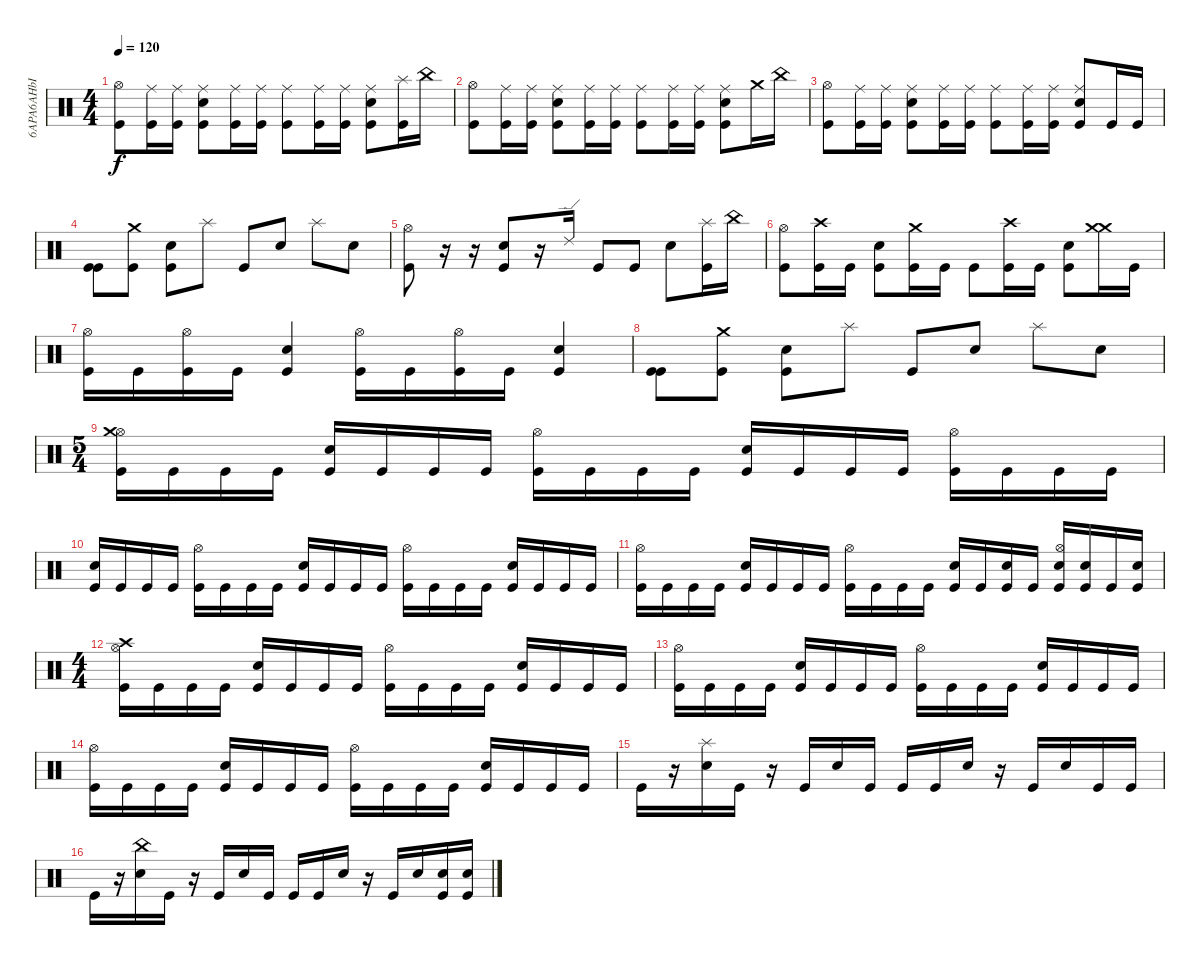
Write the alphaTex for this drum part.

\track ("6APA6AHbI" "6APA6AHbI") {instrument percussion}
\staff {score}
\articulation defaults
\ts (4 4)
\tempo 120
\clef neutral
\ks c
("Kick (hit)" "Hi-Hat (open)").8{dy f} ("Kick (hit)" "Ride (middle)").16 ("Kick (hit)" "Ride (middle)").16 ("Kick (hit)" "Ride (middle)" "Electric Snare (hit)").8 ("Kick (hit)" "Ride (middle)").16 ("Kick (hit)" "Ride (middle)").16 ("Kick (hit)" "Ride (middle)").8 ("Kick (hit)" "Ride (middle)").16 ("Kick (hit)" "Ride (middle)").16 ("Kick (hit)" "Ride (middle)" "Electric Snare (hit)").8 ("Splash (hit)" "Kick (hit)").16 "China (hit)".16 |
("Kick (hit)" "Hi-Hat (open)").8 ("Kick (hit)" "Ride (middle)").16 ("Kick (hit)" "Ride (middle)").16 ("Kick (hit)" "Ride (middle)" "Electric Snare (hit)").8 ("Kick (hit)" "Ride (middle)").16 ("Kick (hit)" "Ride (middle)").16 ("Kick (hit)" "Ride (middle)").8 ("Kick (hit)" "Ride (middle)").16 ("Kick (hit)" "Ride (middle)").16 ("Kick (hit)" "Ride (middle)" "Electric Snare (hit)").8 "Crash medium (hit)".16 "China (hit)".16 |
("Kick (hit)" "Hi-Hat (open)").8 ("Kick (hit)" "Ride (middle)").16 ("Kick (hit)" "Ride (middle)").16 ("Kick (hit)" "Ride (middle)" "Electric Snare (hit)").8 ("Kick (hit)" "Ride (middle)").16 ("Kick (hit)" "Ride (middle)").16 ("Kick (hit)" "Ride (middle)").8 ("Kick (hit)" "Ride (middle)").16 ("Kick (hit)" "Ride (middle)").16 ("Kick (hit)" "Ride (middle)" "Electric Snare (hit)").8 "Kick (hit)".16 "Kick (hit)".16 |
("Kick (hit)" "Kick (hit)").8 ("Crash medium (hit)" "Kick (hit)").8 ("Electric Snare (hit)" "Kick (hit)").8 "Splash (hit)".8 "Kick (hit)".8 "Electric Snare (hit)".8 "Splash (hit)".8 "Electric Snare (hit)".8 |
("Kick (hit)" "Hi-Hat (open)").8 r.16 r.16 ("Kick (hit)" "Electric Snare (hit)").8 r.16 "Ride (edge) 2".16 "Kick (hit)".8 "Kick (hit)".8 "Electric Snare (hit)".8 ("Splash (hit)" "Kick (hit)").16 "China (hit)".16 |
("Kick (hit)" "Hi-Hat (open)").8 ("Kick (hit)" "Crash high (hit)").16 "Kick (hit)".16 ("Kick (hit)" "Electric Snare (hit)").8 ("Kick (hit)" "Crash medium (hit)").16 "Kick (hit)".16 "Kick (hit)".8 ("Kick (hit)" "Crash high (hit)").16 "Kick (hit)".16 ("Kick (hit)" "Electric Snare (hit)").8 ("Crash medium (hit)" "Crash medium (hit)").16 "Kick (hit)".16 |
("Kick (hit)" "Hi-Hat (open)").16 "Kick (hit)".16 ("Kick (hit)" "Hi-Hat (open)").16 "Kick (hit)".16 ("Kick (hit)" "Electric Snare (hit)").4 ("Kick (hit)" "Hi-Hat (open)").16 "Kick (hit)".16 ("Kick (hit)" "Hi-Hat (open)").16 "Kick (hit)".16 ("Kick (hit)" "Electric Snare (hit)").4 |
("Kick (hit)" "Kick (hit)").8 ("Crash medium (hit)" "Kick (hit)").8 ("Electric Snare (hit)" "Kick (hit)").8 "Splash (hit)".8 "Kick (hit)".8 "Electric Snare (hit)".8 "Splash (hit)".8 "Electric Snare (hit)".8 |
\ts (5 4)
("Kick (hit)" "Hi-Hat (open)" "Crash medium (hit)").16 "Kick (hit)".16 "Kick (hit)".16 "Kick (hit)".16 ("Kick (hit)" "Electric Snare (hit)").16 "Kick (hit)".16 "Kick (hit)".16 "Kick (hit)".16 ("Kick (hit)" "Hi-Hat (open)").16 "Kick (hit)".16 "Kick (hit)".16 "Kick (hit)".16 ("Kick (hit)" "Electric Snare (hit)").16 "Kick (hit)".16 "Kick (hit)".16 "Kick (hit)".16 ("Kick (hit)" "Hi-Hat (open)").16 "Kick (hit)".16 "Kick (hit)".16 "Kick (hit)".16 |
("Kick (hit)" "Electric Snare (hit)").16 "Kick (hit)".16 "Kick (hit)".16 "Kick (hit)".16 ("Kick (hit)" "Hi-Hat (open)").16 "Kick (hit)".16 "Kick (hit)".16 "Kick (hit)".16 ("Kick (hit)" "Electric Snare (hit)").16 "Kick (hit)".16 "Kick (hit)".16 "Kick (hit)".16 ("Kick (hit)" "Hi-Hat (open)").16 "Kick (hit)".16 "Kick (hit)".16 "Kick (hit)".16 ("Kick (hit)" "Electric Snare (hit)").16 "Kick (hit)".16 "Kick (hit)".16 "Kick (hit)".16 |
("Kick (hit)" "Hi-Hat (open)").16 "Kick (hit)".16 "Kick (hit)".16 "Kick (hit)".16 ("Kick (hit)" "Electric Snare (hit)").16 "Kick (hit)".16 "Kick (hit)".16 "Kick (hit)".16 ("Kick (hit)" "Hi-Hat (open)").16 "Kick (hit)".16 "Kick (hit)".16 "Kick (hit)".16 ("Kick (hit)" "Electric Snare (hit)").16 "Kick (hit)".16 ("Kick (hit)" "Electric Snare (hit)").16 "Kick (hit)".16 ("Kick (hit)" "Hi-Hat (open)" "Electric Snare (hit)").16 ("Kick (hit)" "Electric Snare (hit)").16 "Kick (hit)".16 ("Kick (hit)" "Electric Snare (hit)").16 |
\ts (4 4)
("Kick (hit)" "Hi-Hat (open)" "Crash high (hit)").16 "Kick (hit)".16 "Kick (hit)".16 "Kick (hit)".16 ("Kick (hit)" "Electric Snare (hit)").16 "Kick (hit)".16 "Kick (hit)".16 "Kick (hit)".16 ("Kick (hit)" "Hi-Hat (open)").16 "Kick (hit)".16 "Kick (hit)".16 "Kick (hit)".16 ("Kick (hit)" "Electric Snare (hit)").16 "Kick (hit)".16 "Kick (hit)".16 "Kick (hit)".16 |
("Kick (hit)" "Hi-Hat (open)").16 "Kick (hit)".16 "Kick (hit)".16 "Kick (hit)".16 ("Kick (hit)" "Electric Snare (hit)").16 "Kick (hit)".16 "Kick (hit)".16 "Kick (hit)".16 ("Kick (hit)" "Hi-Hat (open)").16 "Kick (hit)".16 "Kick (hit)".16 "Kick (hit)".16 ("Kick (hit)" "Electric Snare (hit)").16 "Kick (hit)".16 "Kick (hit)".16 "Kick (hit)".16 |
("Kick (hit)" "Hi-Hat (open)").16 "Kick (hit)".16 "Kick (hit)".16 "Kick (hit)".16 ("Kick (hit)" "Electric Snare (hit)").16 "Kick (hit)".16 "Kick (hit)".16 "Kick (hit)".16 ("Kick (hit)" "Hi-Hat (open)").16 "Kick (hit)".16 "Kick (hit)".16 "Kick (hit)".16 ("Kick (hit)" "Electric Snare (hit)").16 "Kick (hit)".16 "Kick (hit)".16 "Kick (hit)".16 |
"Kick (hit)".16 r.16 ("Electric Snare (hit)" "Splash (hit)").16 "Kick (hit)".16 r.16 "Kick (hit)".16 "Electric Snare (hit)".16 "Kick (hit)".16 "Kick (hit)".16 "Kick (hit)".16 "Electric Snare (hit)".16 r.16 "Kick (hit)".16 "Electric Snare (hit)".16 "Kick (hit)".16 "Kick (hit)".16 |
"Kick (hit)".16 r.16 ("Electric Snare (hit)" "China (hit)").16 "Kick (hit)".16 r.16 "Kick (hit)".16 "Electric Snare (hit)".16 "Kick (hit)".16 "Kick (hit)".16 "Kick (hit)".16 "Electric Snare (hit)".16 r.16 "Kick (hit)".16 "Electric Snare (hit)".16 ("Kick (hit)" "Electric Snare (hit)").16 ("Kick (hit)" "Electric Snare (hit)").16
